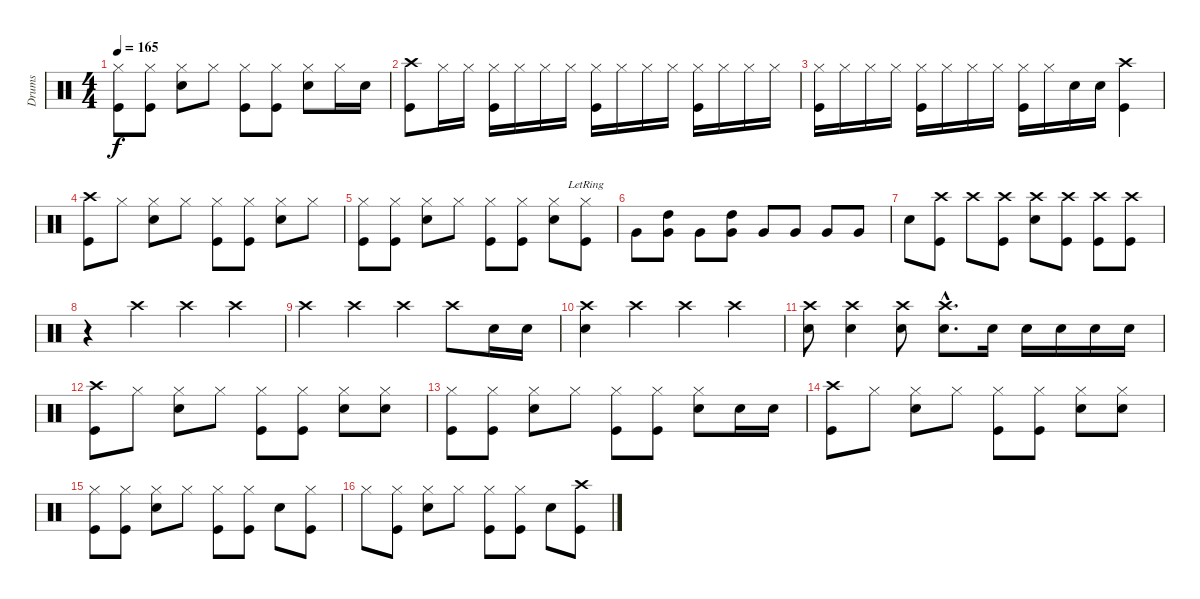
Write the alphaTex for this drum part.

\track ("Drums" "Drums") {instrument percussion}
\staff {score}
\articulation defaults
\ts (4 4)
\tempo 165
\clef neutral
\ks c
("Hi-Hat (closed)" "Kick (hit)").8{dy f} ("Hi-Hat (closed)" "Kick (hit)").8 ("Hi-Hat (closed)" "Snare (hit) 2").8 "Hi-Hat (closed)".8 ("Hi-Hat (closed)" "Kick (hit)").8 ("Hi-Hat (closed)" "Kick (hit)").8 ("Hi-Hat (closed)" "Snare (hit) 2").8 "Hi-Hat (closed)".16 "Snare (hit) 2".16 |
("Crash high (hit)" "Kick (hit)").8 "Hi-Hat (closed)".16 "Hi-Hat (closed)".16 ("Hi-Hat (closed)" "Kick (hit)").16 "Hi-Hat (closed)".16 "Hi-Hat (closed)".16 "Hi-Hat (closed)".16 ("Hi-Hat (closed)" "Kick (hit)").16 "Hi-Hat (closed)".16 "Hi-Hat (closed)".16 "Hi-Hat (closed)".16 ("Hi-Hat (closed)" "Kick (hit)").16 "Hi-Hat (closed)".16 "Hi-Hat (closed)".16 "Hi-Hat (closed)".16 |
("Hi-Hat (closed)" "Kick (hit)").16 "Hi-Hat (closed)".16 "Hi-Hat (closed)".16 "Hi-Hat (closed)".16 ("Hi-Hat (closed)" "Kick (hit)").16 "Hi-Hat (closed)".16 "Hi-Hat (closed)".16 "Hi-Hat (closed)".16 ("Hi-Hat (closed)" "Kick (hit)").16 "Hi-Hat (closed)".16 "Snare (hit) 2".16 "Snare (hit) 2".16 ("Crash high (hit)" "Kick (hit)").4 |
("Crash high (hit)" "Kick (hit)").8 "Hi-Hat (closed)".8 ("Hi-Hat (closed)" "Snare (hit) 2").8 "Hi-Hat (closed)".8 ("Hi-Hat (closed)" "Kick (hit)").8 ("Hi-Hat (closed)" "Kick (hit)").8 ("Hi-Hat (closed)" "Snare (hit) 2").8 "Hi-Hat (closed)".8 |
("Hi-Hat (closed)" "Kick (hit)").8 ("Hi-Hat (closed)" "Kick (hit)").8 ("Hi-Hat (closed)" "Snare (hit) 2").8 "Hi-Hat (closed)".8 ("Hi-Hat (closed)" "Kick (hit)").8 ("Hi-Hat (closed)" "Kick (hit)").8 ("Hi-Hat (closed)" "Snare (hit) 2").8 ("Hi-Hat (closed)"{lr} "Kick (hit)").8 |
"Very Low Tom (hit)".8 ("High Tom (hit)" "Very Low Tom (hit)").8 "Very Low Tom (hit)".8 ("High Tom (hit)" "Very Low Tom (hit)").8 "Very Low Tom (hit)".8 "Very Low Tom (hit)".8 "Very Low Tom (hit)".8 "Very Low Tom (hit)".8 |
"Snare (hit) 2".8 ("Crash high (hit)" "Kick (hit)").8 "Crash high (hit)".8 ("Crash high (hit)" "Kick (hit)").8 ("Crash high (hit)" "Snare (hit) 2").8 ("Crash high (hit)" "Kick (hit)").8 ("Crash high (hit)" "Kick (hit)").8 ("Crash high (hit)" "Kick (hit)").8 |
r.4 "Crash high (hit)".4 "Crash high (hit)".4 "Crash high (hit)".4 |
"Crash high (hit)".4 "Crash high (hit)".4 "Crash high (hit)".4 "Crash high (hit)".8 "Snare (hit) 2".16 "Snare (hit) 2".16 |
("Crash high (hit)" "Snare (hit) 2").4 "Crash high (hit)".4 "Crash high (hit)".4 "Crash high (hit)".4 |
("Crash high (hit)" "Snare (hit) 2").8 ("Crash high (hit)" "Snare (hit) 2").4 ("Crash high (hit)" "Snare (hit) 2").8 ("Crash high (hit)"{hac} "Snare (hit) 2"{hac}).8{d} "Snare (hit) 2".16 "Snare (hit) 2".16 "Snare (hit) 2".16 "Snare (hit) 2".16 "Snare (hit) 2".16 |
("Crash high (hit)" "Kick (hit)").8 "Hi-Hat (closed)".8 ("Hi-Hat (closed)" "Snare (hit) 2").8 "Hi-Hat (closed)".8 ("Hi-Hat (closed)" "Kick (hit)").8 ("Hi-Hat (closed)" "Kick (hit)").8 ("Hi-Hat (closed)" "Snare (hit) 2").8 ("Hi-Hat (closed)" "Snare (hit) 2").8 |
("Hi-Hat (closed)" "Kick (hit)").8 ("Hi-Hat (closed)" "Kick (hit)").8 ("Hi-Hat (closed)" "Snare (hit) 2").8 "Hi-Hat (closed)".8 ("Hi-Hat (closed)" "Kick (hit)").8 ("Hi-Hat (closed)" "Kick (hit)").8 ("Hi-Hat (closed)" "Snare (hit) 2").8 "Snare (hit) 2".16 "Snare (hit) 2".16 |
("Crash high (hit)" "Kick (hit)").8 "Hi-Hat (closed)".8 ("Hi-Hat (closed)" "Snare (hit) 2").8 "Hi-Hat (closed)".8 ("Hi-Hat (closed)" "Kick (hit)").8 ("Hi-Hat (closed)" "Kick (hit)").8 ("Hi-Hat (closed)" "Snare (hit) 2").8 ("Hi-Hat (closed)" "Snare (hit) 2").8 |
("Hi-Hat (closed)" "Kick (hit)").8 ("Hi-Hat (closed)" "Kick (hit)").8 ("Hi-Hat (closed)" "Snare (hit) 2").8 "Hi-Hat (closed)".8 ("Hi-Hat (closed)" "Kick (hit)").8 ("Hi-Hat (closed)" "Kick (hit)").8 "Snare (hit) 2".8 ("Hi-Hat (closed)" "Kick (hit)").8 |
"Hi-Hat (closed)".8 ("Hi-Hat (closed)" "Kick (hit)").8 ("Hi-Hat (closed)" "Snare (hit) 2").8 "Hi-Hat (closed)".8 ("Hi-Hat (closed)" "Kick (hit)").8 ("Hi-Hat (closed)" "Kick (hit)").8 "Snare (hit) 2".8 ("Crash high (hit)" "Kick (hit)").8
